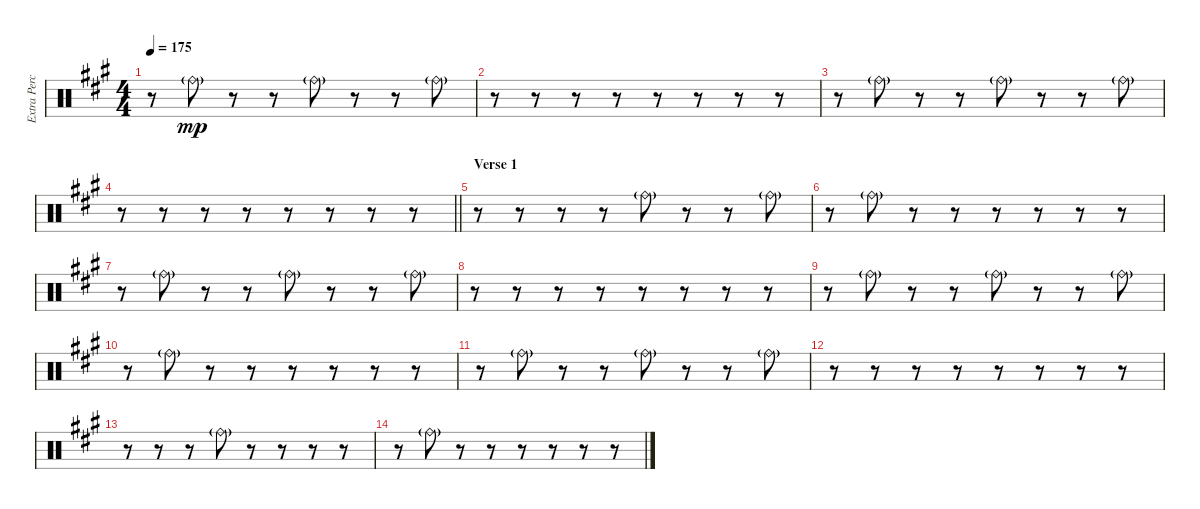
\track ("Extra Percussion" "Extra Perc") {instrument percussion}
\staff {score}
\articulation defaults
\ts (4 4)
\tempo 175
\clef neutral
\ks f#minor
r.8{dy mp} "Ride (bell)"{g}.8 r.8 r.8 "Ride (bell)"{g}.8 r.8 r.8 "Ride (bell)"{g}.8 |
r.8 r.8 r.8 r.8 r.8 r.8 r.8 r.8 |
r.8 "Ride (bell)"{g}.8 r.8 r.8 "Ride (bell)"{g}.8 r.8 r.8 "Ride (bell)"{g}.8 |
\barLineRight lightlight
r.8 r.8 r.8 r.8 r.8 r.8 r.8 r.8 |
\section ("" "Verse 1")
r.8 r.8 r.8 r.8 "Ride (bell)"{g}.8 r.8 r.8 "Ride (bell)"{g}.8 |
r.8 "Ride (bell)"{g}.8 r.8 r.8 r.8 r.8 r.8 r.8 |
r.8 "Ride (bell)"{g}.8 r.8 r.8 "Ride (bell)"{g}.8 r.8 r.8 "Ride (bell)"{g}.8 |
r.8 r.8 r.8 r.8 r.8 r.8 r.8 r.8 |
r.8 "Ride (bell)"{g}.8 r.8 r.8 "Ride (bell)"{g}.8 r.8 r.8 "Ride (bell)"{g}.8 |
r.8 "Ride (bell)"{g}.8 r.8 r.8 r.8 r.8 r.8 r.8 |
r.8 "Ride (bell)"{g}.8 r.8 r.8 "Ride (bell)"{g}.8 r.8 r.8 "Ride (bell)"{g}.8 |
r.8 r.8 r.8 r.8 r.8 r.8 r.8 r.8 |
r.8 r.8 r.8 "Ride (bell)"{g}.8 r.8 r.8 r.8 r.8 |
r.8 "Ride (bell)"{g}.8 r.8 r.8 r.8 r.8 r.8 r.8
